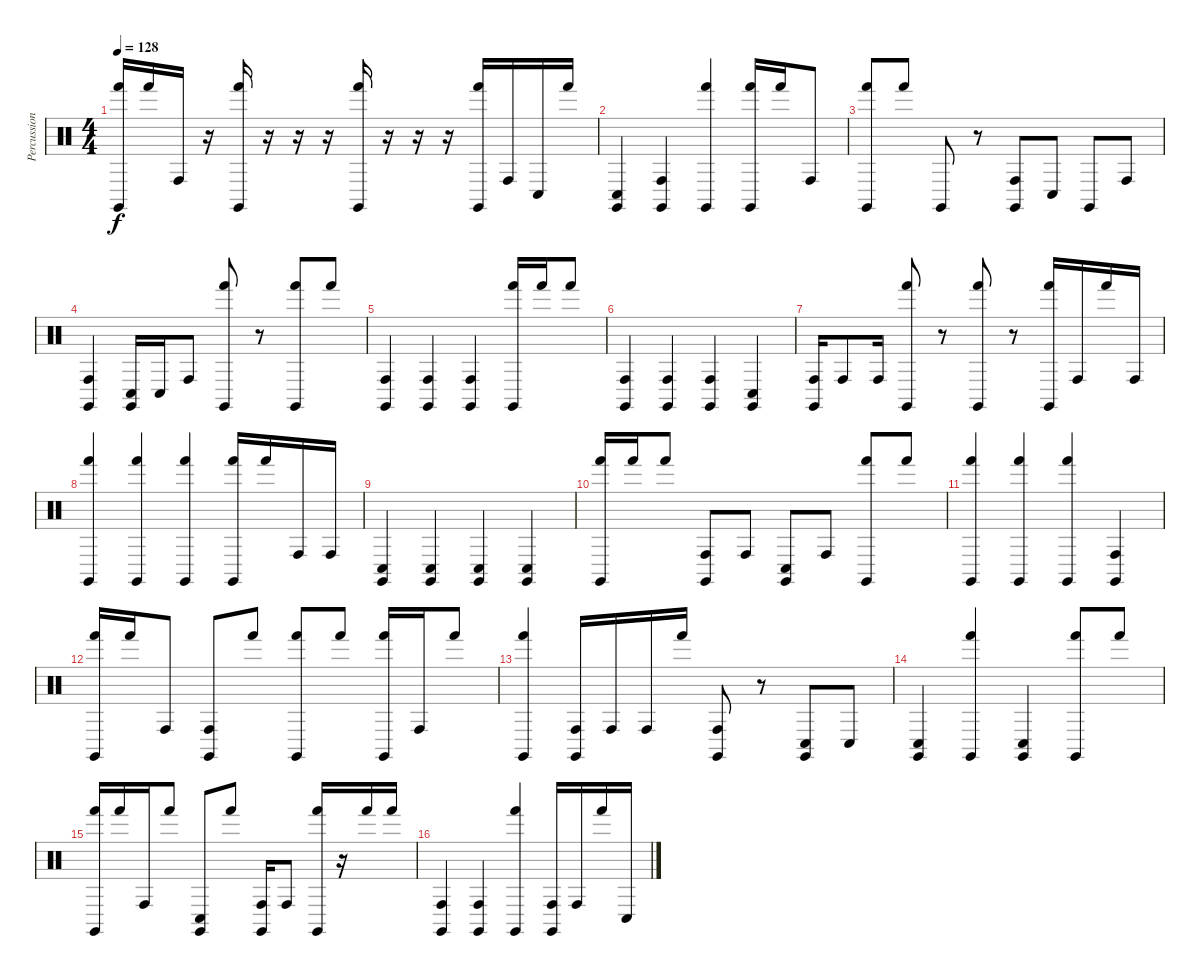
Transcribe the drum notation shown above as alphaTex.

\track ("Percussion" "Percussion") {instrument percussion}
\staff {score}
\articulation defaults
\ts (4 4)
\tempo 128
\clef neutral
\ks c
("Claves (hit)" "Hand (hit)").16{dy f} "Hand (hit)".16 "Conga high (hit)".16 r.16 ("Claves (hit)" "Hand (hit)").16 r.16 r.16 r.16 ("Claves (hit)" "Hand (hit)").16 r.16 r.16 r.16 ("Claves (hit)" "Hand (hit)").16 "Conga high (hit)".16 "Conga low (hit)".16 "Hand (hit)".16 |
("Claves (hit)" "Conga low (hit)").4 ("Claves (hit)" "Conga high (hit)").4 ("Claves (hit)" "Hand (hit)").4 ("Claves (hit)" "Hand (hit)").16 "Hand (hit)".16 "Conga high (hit)".8 |
("Claves (hit)" "Hand (hit)").8 "Hand (hit)".8 "Claves (hit)".8 r.8 ("Claves (hit)" "Conga high (hit)").8 "Conga low (hit)".8 "Claves (hit)".8 "Conga high (hit)".8 |
("Claves (hit)" "Conga high (hit)").4 ("Claves (hit)" "Conga low (hit)").16 "Conga low (hit)".16 "Conga high (hit)".8 ("Claves (hit)" "Hand (hit)").8 r.8 ("Claves (hit)" "Hand (hit)").8 "Hand (hit)".8 |
("Claves (hit)" "Conga high (hit)").4 ("Claves (hit)" "Conga high (hit)").4 ("Claves (hit)" "Conga high (hit)").4 ("Claves (hit)" "Hand (hit)").16 "Hand (hit)".16 "Hand (hit)".8 |
("Claves (hit)" "Conga high (hit)").4 ("Claves (hit)" "Conga high (hit)").4 ("Claves (hit)" "Conga high (hit)").4 ("Claves (hit)" "Conga low (hit)").4 |
("Claves (hit)" "Conga high (hit)").16 "Conga high (hit)".8 "Conga high (hit)".16 ("Claves (hit)" "Hand (hit)").8 r.8 ("Claves (hit)" "Hand (hit)").8 r.8 ("Claves (hit)" "Hand (hit)").16 "Conga high (hit)".16 "Hand (hit)".16 "Conga high (hit)".16 |
("Claves (hit)" "Hand (hit)").4 ("Claves (hit)" "Hand (hit)").4 ("Claves (hit)" "Hand (hit)").4 ("Claves (hit)" "Hand (hit)").16 "Hand (hit)".16 "Conga high (hit)".16 "Conga high (hit)".16 |
("Claves (hit)" "Conga low (hit)").4 ("Claves (hit)" "Conga low (hit)").4 ("Claves (hit)" "Conga low (hit)").4 ("Claves (hit)" "Conga low (hit)").4 |
("Claves (hit)" "Hand (hit)").16 "Hand (hit)".16 "Hand (hit)".8 ("Claves (hit)" "Conga high (hit)").8 "Conga high (hit)".8 ("Claves (hit)" "Conga low (hit)").8 "Conga high (hit)".8 ("Claves (hit)" "Hand (hit)").8 "Hand (hit)".8 |
("Claves (hit)" "Hand (hit)").4 ("Claves (hit)" "Hand (hit)").4 ("Claves (hit)" "Hand (hit)").4 ("Claves (hit)" "Conga high (hit)").4 |
("Claves (hit)" "Hand (hit)").16 "Hand (hit)".16 "Conga high (hit)".8 ("Claves (hit)" "Conga high (hit)").8 "Hand (hit)".8 ("Claves (hit)" "Hand (hit)").8 "Hand (hit)".8 ("Claves (hit)" "Hand (hit)").16 "Conga high (hit)".16 "Hand (hit)".8 |
("Claves (hit)" "Hand (hit)").4 ("Claves (hit)" "Conga high (hit)").16 "Conga high (hit)".16 "Conga high (hit)".16 "Hand (hit)".16 ("Claves (hit)" "Conga high (hit)").8 r.8 ("Claves (hit)" "Conga low (hit)").8 "Conga low (hit)".8 |
("Claves (hit)" "Conga low (hit)").4 ("Claves (hit)" "Hand (hit)").4 ("Claves (hit)" "Conga low (hit)").4 ("Claves (hit)" "Hand (hit)").8 "Hand (hit)".8 |
("Claves (hit)" "Hand (hit)").16 "Hand (hit)".16 "Conga high (hit)".16 "Hand (hit)".8 ("Claves (hit)" "Conga low (hit)").8 "Hand (hit)".8 ("Claves (hit)" "Conga high (hit)").16 "Conga high (hit)".8 ("Claves (hit)" "Hand (hit)").16 r.16 "Hand (hit)".16 "Hand (hit)".16 |
("Claves (hit)" "Conga high (hit)").4 ("Claves (hit)" "Conga high (hit)").4 ("Claves (hit)" "Hand (hit)").4 ("Claves (hit)" "Conga high (hit)").16 "Conga high (hit)".16 "Hand (hit)".16 "Conga low (hit)".16
